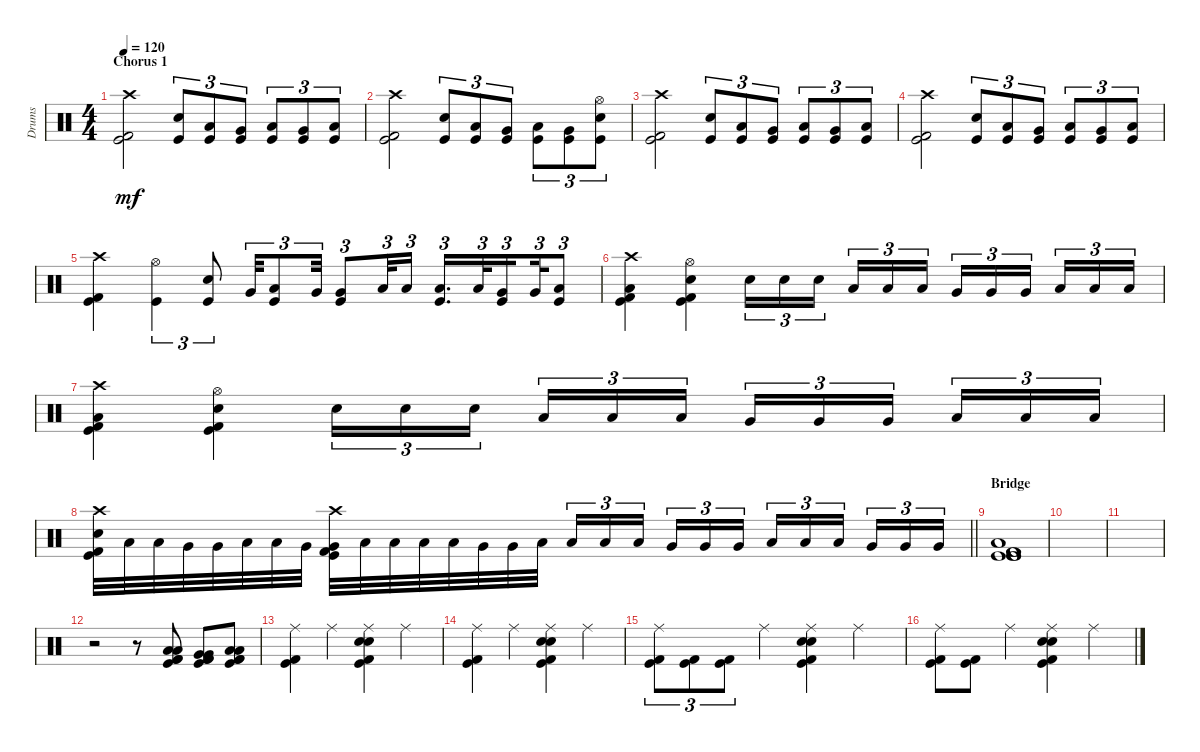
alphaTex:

\track ("Drums" "Drums") {instrument percussion}
\staff {score}
\articulation defaults
\ts (4 4)
\section ("" "Chorus 1")
\tempo 120
\clef neutral
\ks c
("Crash high (hit)" "Kick (hit)" "Kick (hit) 2").2{dy mf} ("Electric Snare (hit)" "Kick (hit)").8{tu (3 2)} ("Low Tom (hit)" "Kick (hit)").8{tu (3 2)} ("Very Low Tom (hit)" "Kick (hit)").8{tu (3 2)} ("Low Tom (hit)" "Kick (hit)").8{tu (3 2)} ("Very Low Tom (hit)" "Kick (hit)").8{tu (3 2)} ("Low Floor Tom (hit)" "Kick (hit)").8{tu (3 2)} |
("Crash high (hit)" "Kick (hit)" "Kick (hit) 2").2 ("Electric Snare (hit)" "Kick (hit)").8{tu (3 2)} ("Low Tom (hit)" "Kick (hit)").8{tu (3 2)} ("Very Low Tom (hit)" "Kick (hit)").8{tu (3 2)} ("Low Tom (hit)" "Kick (hit)").8{tu (3 2)} ("Very Low Tom (hit)" "Kick (hit)").8{tu (3 2)} ("Hi-Hat (open)" "Electric Snare (hit)" "Kick (hit)").8{tu (3 2)} |
("Crash high (hit)" "Kick (hit)" "Kick (hit) 2").2 ("Electric Snare (hit)" "Kick (hit)").8{tu (3 2)} ("Low Tom (hit)" "Kick (hit)").8{tu (3 2)} ("Very Low Tom (hit)" "Kick (hit)").8{tu (3 2)} ("Low Tom (hit)" "Kick (hit)").8{tu (3 2)} ("Very Low Tom (hit)" "Kick (hit)").8{tu (3 2)} ("Low Floor Tom (hit)" "Kick (hit)").8{tu (3 2)} |
("Crash high (hit)" "Kick (hit)" "Kick (hit) 2").2 ("Electric Snare (hit)" "Kick (hit)").8{tu (3 2)} ("Low Tom (hit)" "Kick (hit)").8{tu (3 2)} ("Very Low Tom (hit)" "Kick (hit)").8{tu (3 2)} ("Low Tom (hit)" "Kick (hit)").8{tu (3 2)} ("Very Low Tom (hit)" "Kick (hit)").8{tu (3 2)} ("Low Floor Tom (hit)" "Kick (hit)").8{tu (3 2)} |
("Crash high (hit)" "Kick (hit)" "Kick (hit) 2").4 ("Hi-Hat (open)" "Kick (hit)").4{tu (3 2)} ("Electric Snare (hit)" "Kick (hit)").8{tu (3 2)} "Very Low Tom (hit)".32{tu (3 2)} ("Low Tom (hit)" "Kick (hit)").8{tu (3 2)} "Very Low Tom (hit)".32{tu (3 2)} ("Very Low Tom (hit)" "Kick (hit)").8{tu (3 2)} "Low Tom (hit)".32{tu (3 2)} "Low Floor Tom (hit)".16{tu (3 2)} ("Low Tom (hit)" "Kick (hit)").16{d tu (3 2)} "Low Floor Tom (hit)".32{tu (3 2)} ("Very Low Tom (hit)" "Kick (hit)").16{tu (3 2) beam splitsecondary} "Very Low Tom (hit)".32{tu (3 2)} ("Low Floor Tom (hit)" "Kick (hit)").8{tu (3 2)} |
("Crash high (hit)" "Low Floor Tom (hit)" "Kick (hit) 2" "Kick (hit)").4 ("Hi-Hat (open)" "Electric Snare (hit)" "Kick (hit)" "Kick (hit) 2").4 "Electric Snare (hit)".16{tu (3 2)} "Electric Snare (hit)".16{tu (3 2)} "Electric Snare (hit)".16{tu (3 2) beam splitsecondary} "Low Tom (hit)".16{tu (3 2)} "Low Tom (hit)".16{tu (3 2)} "Low Tom (hit)".16{tu (3 2)} "Very Low Tom (hit)".16{tu (3 2)} "Very Low Tom (hit)".16{tu (3 2)} "Very Low Tom (hit)".16{tu (3 2) beam splitsecondary} "Low Floor Tom (hit)".16{tu (3 2)} "Low Floor Tom (hit)".16{tu (3 2)} "Low Floor Tom (hit)".16{tu (3 2)} |
("Crash high (hit)" "Low Floor Tom (hit)" "Kick (hit) 2" "Kick (hit)").4 ("Hi-Hat (open)" "Electric Snare (hit)" "Kick (hit)" "Kick (hit) 2").4 "Electric Snare (hit)".16{tu (3 2)} "Electric Snare (hit)".16{tu (3 2)} "Electric Snare (hit)".16{tu (3 2) beam splitsecondary} "Low Tom (hit)".16{tu (3 2)} "Low Tom (hit)".16{tu (3 2)} "Low Tom (hit)".16{tu (3 2)} "Very Low Tom (hit)".16{tu (3 2)} "Very Low Tom (hit)".16{tu (3 2)} "Very Low Tom (hit)".16{tu (3 2) beam splitsecondary} "Low Floor Tom (hit)".16{tu (3 2)} "Low Floor Tom (hit)".16{tu (3 2)} "Low Floor Tom (hit)".16{tu (3 2)} |
\barLineRight lightlight
("Crash high (hit)" "Electric Snare (hit)" "Kick (hit)" "Kick (hit) 2").32 "Low Tom (hit)".32 "Low Tom (hit)".32 "Very Low Tom (hit)".32 "Very Low Tom (hit)".32 "Low Floor Tom (hit)".32 "Low Floor Tom (hit)".32 "Very Low Tom (hit)".32 ("Crash high (hit)" "Very Low Tom (hit)" "Kick (hit)" "Kick (hit) 2").32 "Low Floor Tom (hit)".32 "Low Floor Tom (hit)".32 "Low Tom (hit)".32 "Low Tom (hit)".32 "Very Low Tom (hit)".32 "Very Low Tom (hit)".32 "Low Floor Tom (hit)".32 "Low Floor Tom (hit)".16{tu (3 2)} "Low Floor Tom (hit)".16{tu (3 2)} "Low Floor Tom (hit)".16{tu (3 2) beam splitsecondary} "Very Low Tom (hit)".16{tu (3 2)} "Very Low Tom (hit)".16{tu (3 2)} "Very Low Tom (hit)".16{tu (3 2)} "Low Tom (hit)".16{tu (3 2)} "Low Tom (hit)".16{tu (3 2)} "Low Tom (hit)".16{tu (3 2) beam splitsecondary} "Very Low Tom (hit)".16{tu (3 2)} "Very Low Tom (hit)".16{tu (3 2)} "Very Low Tom (hit)".16{tu (3 2)} |
\section ("" "Bridge")
("Low Floor Tom (hit)" "Kick (hit) 2" "Kick (hit) 2" "Kick (hit)" "Kick (hit)" "Kick (hit)").1 |
|
|
r.2{volume 13} r.8 ("Kick (hit)" "Low Tom (hit)" "Kick (hit) 2" "Kick (hit) 2" "Low Tom (hit)").8 ("Kick (hit)" "Very Low Tom (hit)" "Kick (hit) 2" "Kick (hit) 2" "Very Low Tom (hit)").8 ("Kick (hit)" "Low Floor Tom (hit)" "Kick (hit) 2" "Kick (hit) 2" "Low Floor Tom (hit)").8 |
("Ride (middle)" "Kick (hit) 2" "Kick (hit)").4 "Ride (middle)".4 ("Ride (middle)" "Electric Snare (hit)" "Electric Snare (hit)" "Kick (hit) 2" "Kick (hit)").4 "Ride (middle)".4 |
("Ride (middle)" "Kick (hit) 2" "Kick (hit)").4 "Ride (middle)".4 ("Ride (middle)" "Electric Snare (hit)" "Electric Snare (hit)" "Kick (hit) 2" "Kick (hit)").4 "Ride (middle)".4 |
("Ride (middle)" "Kick (hit) 2" "Kick (hit)").8{tu (3 2)} ("Kick (hit) 2" "Kick (hit)").8{tu (3 2)} ("Kick (hit) 2" "Kick (hit)").8{tu (3 2)} "Ride (middle)".4 ("Ride (middle)" "Electric Snare (hit)" "Electric Snare (hit)" "Kick (hit) 2" "Kick (hit)").4 "Ride (middle)".4 |
("Ride (middle)" "Kick (hit) 2" "Kick (hit)").8 ("Kick (hit) 2" "Kick (hit)").8 "Ride (middle)".4 ("Ride (middle)" "Electric Snare (hit)" "Electric Snare (hit)" "Kick (hit) 2" "Kick (hit)").4 "Ride (middle)".4
